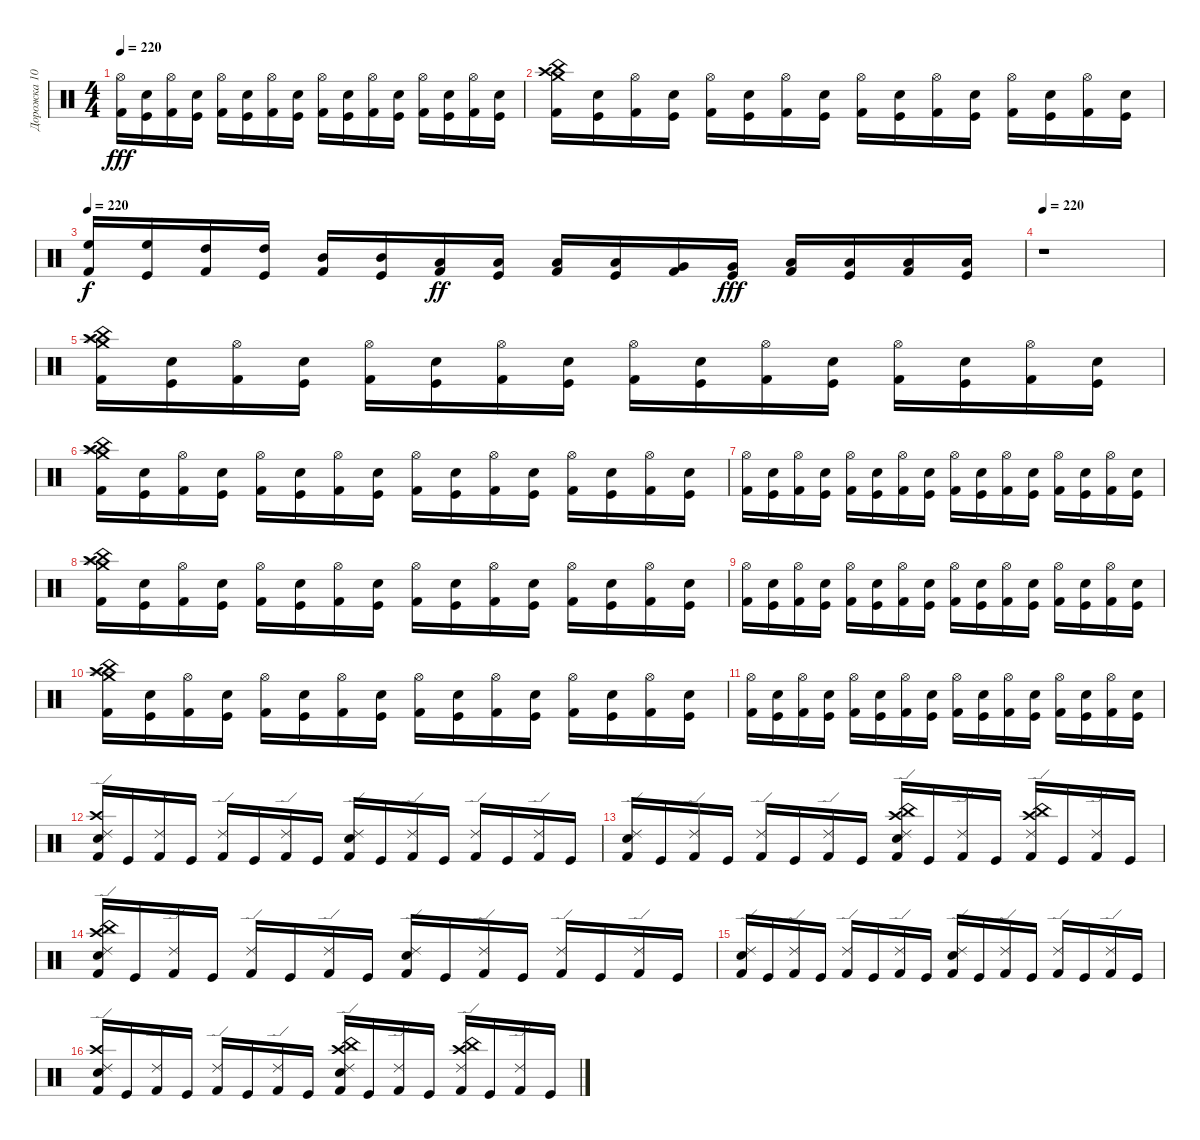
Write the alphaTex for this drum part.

\track ("Дорожка 10" "Дорожка 10") {instrument percussion}
\staff {score}
\articulation defaults
\ts (4 4)
\tempo 220
\clef neutral
\ks c
("Hi-Hat (open)" "Kick (hit) 2").16{dy fff} ("Kick (hit)" "Snare (hit) 2").16 ("Hi-Hat (open)" "Kick (hit) 2").16 ("Kick (hit)" "Snare (hit) 2").16 ("Kick (hit) 2" "Hi-Hat (open)").16 ("Kick (hit)" "Snare (hit) 2").16 ("Kick (hit) 2" "Hi-Hat (open)").16 ("Kick (hit)" "Snare (hit) 2").16 ("Hi-Hat (open)" "Kick (hit) 2").16 ("Kick (hit)" "Snare (hit) 2").16 ("Kick (hit) 2" "Hi-Hat (open)").16 ("Kick (hit)" "Snare (hit) 2").16 ("Kick (hit) 2" "Hi-Hat (open)").16 ("Snare (hit) 2" "Kick (hit)").16 ("Hi-Hat (open)" "Kick (hit) 2").16 ("Snare (hit) 2" "Kick (hit)").16 |
("China (hit)" "Crash high (hit)" "Crash medium (hit)" "Kick (hit) 2").16 ("Kick (hit)" "Snare (hit) 2").16 ("Kick (hit) 2" "Hi-Hat (open)").16 ("Kick (hit)" "Snare (hit) 2").16 ("Hi-Hat (open)" "Kick (hit) 2").16 ("Snare (hit) 2" "Kick (hit)").16 ("Kick (hit) 2" "Hi-Hat (open)").16 ("Kick (hit)" "Snare (hit) 2").16 ("Kick (hit) 2" "Hi-Hat (open)").16 ("Snare (hit) 2" "Kick (hit)").16 ("Hi-Hat (open)" "Kick (hit) 2").16 ("Kick (hit)" "Snare (hit) 2").16 ("Kick (hit) 2" "Hi-Hat (open)").16 ("Snare (hit) 2" "Kick (hit)").16 ("Hi-Hat (open)" "Kick (hit) 2").16 ("Snare (hit) 2" "Kick (hit)").16 |
\tempo 220
("High Floor Tom (hit)" "Kick (hit) 2").16{dy f} ("High Floor Tom (hit)" "Kick (hit)").16 ("High Tom (hit)" "Kick (hit) 2").16 ("High Tom (hit)" "Kick (hit)").16 ("Mid Tom (hit)" "Kick (hit) 2").16 ("Mid Tom (hit)" "Kick (hit)").16 ("Low Tom (hit)" "Kick (hit) 2").16{dy ff} ("Low Tom (hit)" "Kick (hit)").16 ("Low Tom (hit)" "Kick (hit) 2").16 ("Low Tom (hit)" "Kick (hit)").16 ("Very Low Tom (hit)" "Kick (hit) 2").16 ("Very Low Tom (hit)" "Kick (hit)").16{dy fff} ("Low Floor Tom (hit)" "Kick (hit) 2").16 ("Low Floor Tom (hit)" "Kick (hit)").16 ("Low Floor Tom (hit)" "Kick (hit) 2").16 ("Low Floor Tom (hit)" "Kick (hit)").16 |
\tempo 220
r.1 |
("Kick (hit) 2" "Crash high (hit)" "China (hit)" "Crash medium (hit)" "Splash (hit)").16 ("Kick (hit)" "Snare (hit) 2").16 ("Kick (hit) 2" "Hi-Hat (open)").16 ("Kick (hit)" "Snare (hit) 2").16 ("Hi-Hat (open)" "Kick (hit) 2").16 ("Snare (hit) 2" "Kick (hit)").16 ("Kick (hit) 2" "Hi-Hat (open)").16 ("Snare (hit) 2" "Kick (hit)").16 ("Hi-Hat (open)" "Kick (hit) 2").16 ("Snare (hit) 2" "Kick (hit)").16 ("Kick (hit) 2" "Hi-Hat (open)").16 ("Snare (hit) 2" "Kick (hit)").16 ("Kick (hit) 2" "Hi-Hat (open)").16 ("Snare (hit) 2" "Kick (hit)").16 ("Hi-Hat (open)" "Kick (hit) 2").16 ("Kick (hit)" "Snare (hit) 2").16 |
("Crash high (hit)" "China (hit)" "Crash medium (hit)" "Splash (hit)" "Kick (hit) 2").16 ("Snare (hit) 2" "Kick (hit)").16 ("Kick (hit) 2" "Hi-Hat (open)").16 ("Kick (hit)" "Snare (hit) 2").16 ("Hi-Hat (open)" "Kick (hit) 2").16 ("Kick (hit)" "Snare (hit) 2").16 ("Hi-Hat (open)" "Kick (hit) 2").16 ("Snare (hit) 2" "Kick (hit)").16 ("Kick (hit) 2" "Hi-Hat (open)").16 ("Snare (hit) 2" "Kick (hit)").16 ("Hi-Hat (open)" "Kick (hit) 2").16 ("Snare (hit) 2" "Kick (hit)").16 ("Hi-Hat (open)" "Kick (hit) 2").16 ("Snare (hit) 2" "Kick (hit)").16 ("Hi-Hat (open)" "Kick (hit) 2").16 ("Snare (hit) 2" "Kick (hit)").16 |
("Hi-Hat (open)" "Kick (hit) 2").16 ("Snare (hit) 2" "Kick (hit)").16 ("Hi-Hat (open)" "Kick (hit) 2").16 ("Snare (hit) 2" "Kick (hit)").16 ("Kick (hit) 2" "Hi-Hat (open)").16 ("Snare (hit) 2" "Kick (hit)").16 ("Hi-Hat (open)" "Kick (hit) 2").16 ("Snare (hit) 2" "Kick (hit)").16 ("Hi-Hat (open)" "Kick (hit) 2").16 ("Snare (hit) 2" "Kick (hit)").16 ("Kick (hit) 2" "Hi-Hat (open)").16 ("Snare (hit) 2" "Kick (hit)").16 ("Hi-Hat (open)" "Kick (hit) 2").16 ("Snare (hit) 2" "Kick (hit)").16 ("Hi-Hat (open)" "Kick (hit) 2").16 ("Kick (hit)" "Snare (hit) 2").16 |
("Kick (hit) 2" "Crash high (hit)" "Splash (hit)" "China (hit)" "Crash medium (hit)").16 ("Kick (hit)" "Snare (hit) 2").16 ("Kick (hit) 2" "Hi-Hat (open)").16 ("Snare (hit) 2" "Kick (hit)").16 ("Kick (hit) 2" "Hi-Hat (open)").16 ("Kick (hit)" "Snare (hit) 2").16 ("Hi-Hat (open)" "Kick (hit) 2").16 ("Snare (hit) 2" "Kick (hit)").16 ("Kick (hit) 2" "Hi-Hat (open)").16 ("Kick (hit)" "Snare (hit) 2").16 ("Hi-Hat (open)" "Kick (hit) 2").16 ("Snare (hit) 2" "Kick (hit)").16 ("Kick (hit) 2" "Hi-Hat (open)").16 ("Kick (hit)" "Snare (hit) 2").16 ("Hi-Hat (open)" "Kick (hit) 2").16 ("Kick (hit)" "Snare (hit) 2").16 |
("Hi-Hat (open)" "Kick (hit) 2").16 ("Kick (hit)" "Snare (hit) 2").16 ("Kick (hit) 2" "Hi-Hat (open)").16 ("Kick (hit)" "Snare (hit) 2").16 ("Hi-Hat (open)" "Kick (hit) 2").16 ("Snare (hit) 2" "Kick (hit)").16 ("Hi-Hat (open)" "Kick (hit) 2").16 ("Snare (hit) 2" "Kick (hit)").16 ("Hi-Hat (open)" "Kick (hit) 2").16 ("Kick (hit)" "Snare (hit) 2").16 ("Hi-Hat (open)" "Kick (hit) 2").16 ("Kick (hit)" "Snare (hit) 2").16 ("Hi-Hat (open)" "Kick (hit) 2").16 ("Snare (hit) 2" "Kick (hit)").16 ("Kick (hit) 2" "Hi-Hat (open)").16 ("Kick (hit)" "Snare (hit) 2").16 |
("Kick (hit) 2" "Crash medium (hit)" "Splash (hit)" "China (hit)" "Crash high (hit)").16 ("Kick (hit)" "Snare (hit) 2").16 ("Hi-Hat (open)" "Kick (hit) 2").16 ("Kick (hit)" "Snare (hit) 2").16 ("Hi-Hat (open)" "Kick (hit) 2").16 ("Kick (hit)" "Snare (hit) 2").16 ("Kick (hit) 2" "Hi-Hat (open)").16 ("Snare (hit) 2" "Kick (hit)").16 ("Hi-Hat (open)" "Kick (hit) 2").16 ("Kick (hit)" "Snare (hit) 2").16 ("Kick (hit) 2" "Hi-Hat (open)").16 ("Snare (hit) 2" "Kick (hit)").16 ("Hi-Hat (open)" "Kick (hit) 2").16 ("Kick (hit)" "Snare (hit) 2").16 ("Hi-Hat (open)" "Kick (hit) 2").16 ("Kick (hit)" "Snare (hit) 2").16 |
("Kick (hit) 2" "Hi-Hat (open)").16 ("Kick (hit)" "Snare (hit) 2").16 ("Kick (hit) 2" "Hi-Hat (open)").16 ("Snare (hit) 2" "Kick (hit)").16 ("Kick (hit) 2" "Hi-Hat (open)").16 ("Kick (hit)" "Snare (hit) 2").16 ("Kick (hit) 2" "Hi-Hat (open)").16 ("Kick (hit)" "Snare (hit) 2").16 ("Kick (hit) 2" "Hi-Hat (open)").16 ("Kick (hit)" "Snare (hit) 2").16 ("Hi-Hat (open)" "Kick (hit) 2").16 ("Snare (hit) 2" "Kick (hit)").16 ("Kick (hit) 2" "Hi-Hat (open)").16 ("Kick (hit)" "Snare (hit) 2").16 ("Hi-Hat (open)" "Kick (hit) 2").16 ("Kick (hit)" "Snare (hit) 2").16 |
("Crash high (hit)" "Ride (edge) 2" "Electric Snare (hit)" "Kick (hit) 2").16 "Kick (hit)".16 ("Ride (edge) 2" "Kick (hit) 2").16 "Kick (hit)".16 ("Ride (edge) 2" "Kick (hit) 2").16 "Kick (hit)".16 ("Kick (hit) 2" "Ride (edge) 2").16 "Kick (hit)".16 ("Kick (hit) 2" "Ride (edge) 2" "Electric Snare (hit)").16 "Kick (hit)".16 ("Kick (hit) 2" "Ride (edge) 2").16 "Kick (hit)".16 ("Kick (hit) 2" "Ride (edge) 2").16 "Kick (hit)".16 ("Ride (edge) 2" "Kick (hit) 2").16 "Kick (hit)".16 |
("Ride (edge) 2" "Electric Snare (hit)" "Kick (hit) 2").16 "Kick (hit)".16 ("Kick (hit) 2" "Ride (edge) 2").16 "Kick (hit)".16 ("Kick (hit) 2" "Ride (edge) 2").16 "Kick (hit)".16 ("Kick (hit) 2" "Ride (edge) 2").16 "Kick (hit)".16 ("Crash high (hit)" "Electric Snare (hit)" "Ride (edge) 2" "Kick (hit) 2" "China (hit)").16 "Kick (hit)".16 ("Kick (hit) 2" "Ride (edge) 2").16 "Kick (hit)".16 ("Kick (hit) 2" "Ride (edge) 2" "Crash high (hit)" "China (hit)").16 "Kick (hit)".16 ("Ride (edge) 2" "Kick (hit) 2").16 "Kick (hit)".16 |
("Crash high (hit)" "Ride (edge) 2" "Electric Snare (hit)" "China (hit)" "Kick (hit) 2").16 "Kick (hit)".16 ("Kick (hit) 2" "Ride (edge) 2").16 "Kick (hit)".16 ("Kick (hit) 2" "Ride (edge) 2").16 "Kick (hit)".16 ("Ride (edge) 2" "Kick (hit) 2").16 "Kick (hit)".16 ("Ride (edge) 2" "Electric Snare (hit)" "Kick (hit) 2").16 "Kick (hit)".16 ("Ride (edge) 2" "Kick (hit) 2").16 "Kick (hit)".16 ("Ride (edge) 2" "Kick (hit) 2").16 "Kick (hit)".16 ("Kick (hit) 2" "Ride (edge) 2").16 "Kick (hit)".16 |
("Electric Snare (hit)" "Ride (edge) 2" "Kick (hit) 2").16 "Kick (hit)".16 ("Ride (edge) 2" "Kick (hit) 2").16 "Kick (hit)".16 ("Ride (edge) 2" "Kick (hit) 2").16 "Kick (hit)".16 ("Ride (edge) 2" "Kick (hit) 2").16 "Kick (hit)".16 ("Ride (edge) 2" "Electric Snare (hit)" "Kick (hit) 2").16 "Kick (hit)".16 ("Ride (edge) 2" "Kick (hit) 2").16 "Kick (hit)".16 ("Ride (edge) 2" "Kick (hit) 2").16 "Kick (hit)".16 ("Kick (hit) 2" "Ride (edge) 2").16 "Kick (hit)".16 |
("Electric Snare (hit)" "Kick (hit) 2" "Ride (edge) 2" "Crash high (hit)").16 "Kick (hit)".16 ("Ride (edge) 2" "Kick (hit) 2").16 "Kick (hit)".16 ("Kick (hit) 2" "Ride (edge) 2").16 "Kick (hit)".16 ("Kick (hit) 2" "Ride (edge) 2").16 "Kick (hit)".16 ("Kick (hit) 2" "Electric Snare (hit)" "Ride (edge) 2" "China (hit)" "Crash high (hit)").16 "Kick (hit)".16 ("Ride (edge) 2" "Kick (hit) 2").16 "Kick (hit)".16 ("Kick (hit) 2" "Ride (edge) 2" "Crash high (hit)" "China (hit)").16 "Kick (hit)".16 ("Kick (hit) 2" "Ride (edge) 2").16 "Kick (hit)".16
